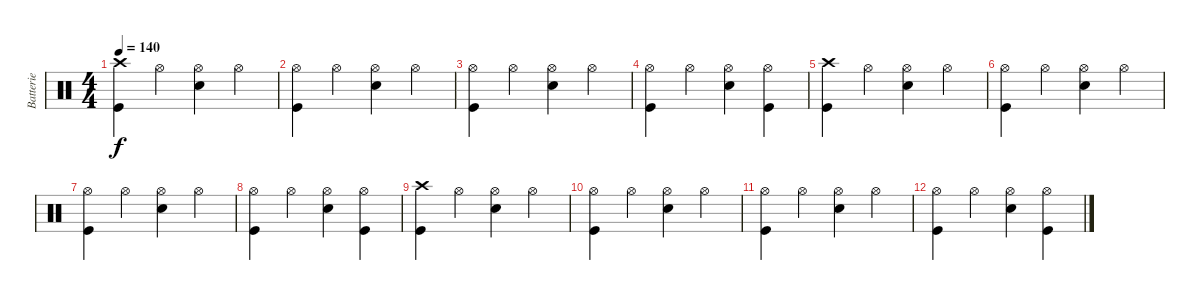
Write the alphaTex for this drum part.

\track ("Batterie" "Batterie") {instrument percussion}
\staff {score}
\articulation defaults
\ts (4 4)
\tempo 140
\clef neutral
\ks c
("Crash high (hit)" "Kick (hit)").4{dy f} "Hi-Hat (open)".4 ("Hi-Hat (open)" "Electric Snare (hit)").4 "Hi-Hat (open)".4 |
("Hi-Hat (open)" "Kick (hit)").4 "Hi-Hat (open)".4 ("Hi-Hat (open)" "Electric Snare (hit)").4 "Hi-Hat (open)".4 |
("Hi-Hat (open)" "Kick (hit)").4 "Hi-Hat (open)".4 ("Hi-Hat (open)" "Electric Snare (hit)").4 "Hi-Hat (open)".4 |
("Hi-Hat (open)" "Kick (hit)").4 "Hi-Hat (open)".4 ("Hi-Hat (open)" "Electric Snare (hit)").4 ("Hi-Hat (open)" "Kick (hit)").4 |
("Crash high (hit)" "Kick (hit)").4 "Hi-Hat (open)".4 ("Hi-Hat (open)" "Electric Snare (hit)").4 "Hi-Hat (open)".4 |
("Hi-Hat (open)" "Kick (hit)").4 "Hi-Hat (open)".4 ("Hi-Hat (open)" "Electric Snare (hit)").4 "Hi-Hat (open)".4 |
("Hi-Hat (open)" "Kick (hit)").4 "Hi-Hat (open)".4 ("Hi-Hat (open)" "Electric Snare (hit)").4 "Hi-Hat (open)".4 |
("Hi-Hat (open)" "Kick (hit)").4 "Hi-Hat (open)".4 ("Hi-Hat (open)" "Electric Snare (hit)").4 ("Hi-Hat (open)" "Kick (hit)").4 |
("Crash high (hit)" "Kick (hit)").4 "Hi-Hat (open)".4 ("Hi-Hat (open)" "Electric Snare (hit)").4 "Hi-Hat (open)".4 |
("Hi-Hat (open)" "Kick (hit)").4 "Hi-Hat (open)".4 ("Hi-Hat (open)" "Electric Snare (hit)").4 "Hi-Hat (open)".4 |
("Hi-Hat (open)" "Kick (hit)").4 "Hi-Hat (open)".4 ("Hi-Hat (open)" "Electric Snare (hit)").4 "Hi-Hat (open)".4 |
("Hi-Hat (open)" "Kick (hit)").4 "Hi-Hat (open)".4 ("Hi-Hat (open)" "Electric Snare (hit)").4 ("Hi-Hat (open)" "Kick (hit)").4
